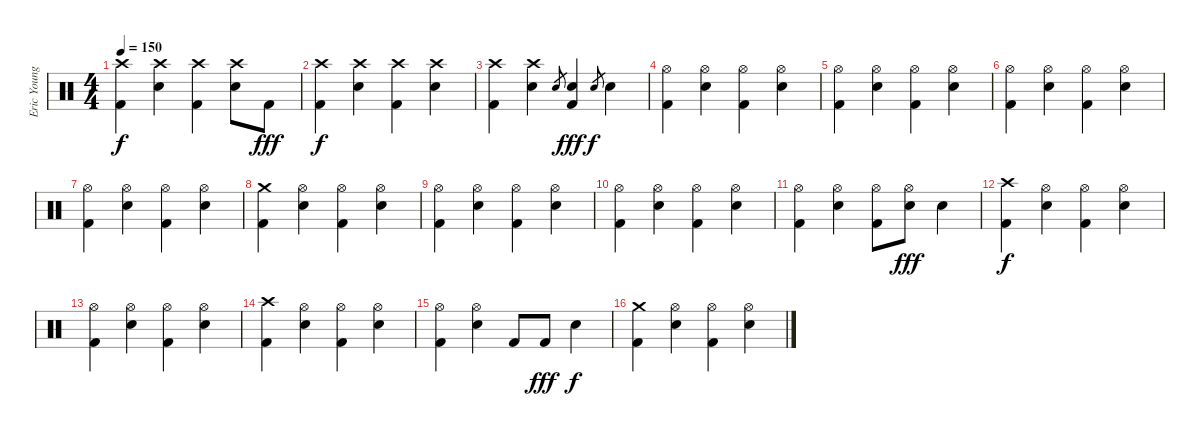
\track ("Eric Young" "Eric Young") {instrument percussion}
\staff {score}
\articulation defaults
\ts (4 4)
\tempo 150
\clef neutral
\ks c
("Crash high (hit)" "Kick (hit) 2").4{dy f} ("Crash high (hit)" "Electric Snare (hit)").4 ("Crash high (hit)" "Kick (hit) 2").4 ("Crash high (hit)" "Electric Snare (hit)").8 "Kick (hit) 2".8{dy fff} |
("Crash high (hit)" "Kick (hit) 2").4{dy f} ("Crash high (hit)" "Electric Snare (hit)").4 ("Crash high (hit)" "Kick (hit) 2").4 ("Crash high (hit)" "Electric Snare (hit)").4 |
("Crash high (hit)" "Kick (hit) 2").4 ("Crash high (hit)" "Electric Snare (hit)").4 "Electric Snare (hit)".8{gr} ("Electric Snare (hit)" "Kick (hit) 2").4{dy fff} "Electric Snare (hit)".8{gr dy f} "Electric Snare (hit)".4 |
("Hi-Hat (open)" "Kick (hit) 2").4 ("Hi-Hat (open)" "Electric Snare (hit)").4 ("Hi-Hat (open)" "Kick (hit) 2").4 ("Hi-Hat (open)" "Electric Snare (hit)").4 |
("Hi-Hat (open)" "Kick (hit) 2").4 ("Hi-Hat (open)" "Electric Snare (hit)").4 ("Hi-Hat (open)" "Kick (hit) 2").4 ("Hi-Hat (open)" "Electric Snare (hit)").4 |
("Hi-Hat (open)" "Kick (hit) 2").4 ("Hi-Hat (open)" "Electric Snare (hit)").4 ("Hi-Hat (open)" "Kick (hit) 2").4 ("Hi-Hat (open)" "Electric Snare (hit)").4 |
("Hi-Hat (open)" "Kick (hit) 2").4 ("Hi-Hat (open)" "Electric Snare (hit)").4 ("Hi-Hat (open)" "Kick (hit) 2").4 ("Hi-Hat (open)" "Electric Snare (hit)").4 |
("Crash medium (hit)" "Kick (hit) 2").4 ("Hi-Hat (open)" "Electric Snare (hit)").4 ("Hi-Hat (open)" "Kick (hit) 2").4 ("Hi-Hat (open)" "Electric Snare (hit)").4 |
("Hi-Hat (open)" "Kick (hit) 2").4 ("Hi-Hat (open)" "Electric Snare (hit)").4 ("Hi-Hat (open)" "Kick (hit) 2").4 ("Hi-Hat (open)" "Electric Snare (hit)").4 |
("Hi-Hat (open)" "Kick (hit) 2").4 ("Hi-Hat (open)" "Electric Snare (hit)").4 ("Hi-Hat (open)" "Kick (hit) 2").4 ("Hi-Hat (open)" "Electric Snare (hit)").4 |
("Hi-Hat (open)" "Kick (hit) 2").4 ("Hi-Hat (open)" "Electric Snare (hit)").4 ("Hi-Hat (open)" "Kick (hit) 2").8 ("Hi-Hat (open)" "Electric Snare (hit)").8{dy fff} "Electric Snare (hit)".4 |
("Crash high (hit)" "Kick (hit) 2").4{dy f} ("Hi-Hat (open)" "Electric Snare (hit)").4 ("Hi-Hat (open)" "Kick (hit) 2").4 ("Hi-Hat (open)" "Electric Snare (hit)").4 |
("Hi-Hat (open)" "Kick (hit) 2").4 ("Hi-Hat (open)" "Electric Snare (hit)").4 ("Hi-Hat (open)" "Kick (hit) 2").4 ("Hi-Hat (open)" "Electric Snare (hit)").4 |
("Crash high (hit)" "Kick (hit) 2").4 ("Hi-Hat (open)" "Electric Snare (hit)").4 ("Hi-Hat (open)" "Kick (hit) 2").4 ("Hi-Hat (open)" "Electric Snare (hit)").4 |
("Hi-Hat (open)" "Kick (hit) 2").4 ("Hi-Hat (open)" "Electric Snare (hit)").4 "Kick (hit) 2".8 "Kick (hit) 2".8{dy fff} "Electric Snare (hit)".4{dy f} |
("Crash medium (hit)" "Kick (hit) 2").4 ("Hi-Hat (open)" "Electric Snare (hit)").4 ("Hi-Hat (open)" "Kick (hit) 2").4 ("Hi-Hat (open)" "Electric Snare (hit)").4
